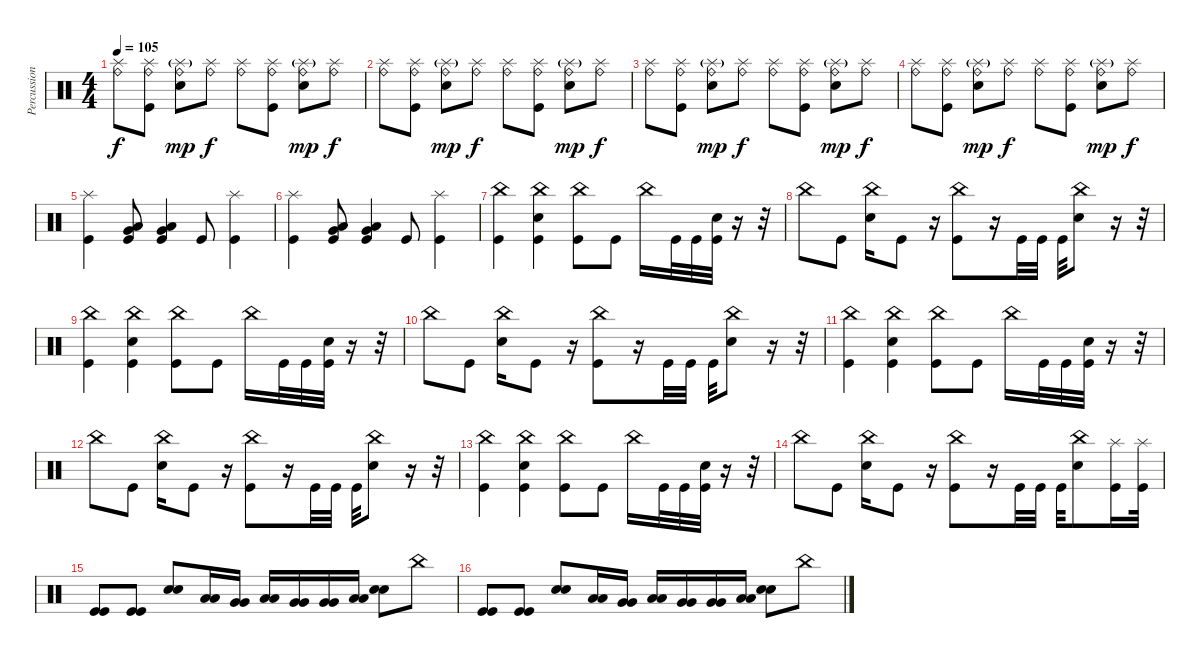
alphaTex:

\track ("Percussion" "Percussion") {instrument percussion}
\staff {score}
\articulation defaults
\ts (4 4)
\tempo 105
\clef neutral
\ks c
("Ride (bell)" "Splash (hit)").8{dy f} ("Kick (hit)" "Ride (bell)" "Splash (hit)").8 ("Snare (hit) 2" "Ride (bell)" "Splash (hit)"{g}).8{dy mp} ("Ride (bell)" "Splash (hit)").8{dy f} ("Ride (bell)" "Splash (hit)").8 ("Kick (hit)" "Ride (bell)" "Splash (hit)").8 ("Snare (hit) 2" "Ride (bell)" "Splash (hit)"{g}).8{dy mp} ("Ride (bell)" "Splash (hit)").8{dy f} |
("Ride (bell)" "Splash (hit)").8 ("Kick (hit)" "Ride (bell)" "Splash (hit)").8 ("Snare (hit) 2" "Ride (bell)" "Splash (hit)"{g}).8{dy mp} ("Ride (bell)" "Splash (hit)").8{dy f} ("Ride (bell)" "Splash (hit)").8 ("Kick (hit)" "Ride (bell)" "Splash (hit)").8 ("Snare (hit) 2" "Ride (bell)" "Splash (hit)"{g}).8{dy mp} ("Ride (bell)" "Splash (hit)").8{dy f} |
("Ride (bell)" "Splash (hit)").8 ("Kick (hit)" "Ride (bell)" "Splash (hit)").8 ("Snare (hit) 2" "Ride (bell)" "Splash (hit)"{g}).8{dy mp} ("Ride (bell)" "Splash (hit)").8{dy f} ("Ride (bell)" "Splash (hit)").8 ("Kick (hit)" "Ride (bell)" "Splash (hit)").8 ("Snare (hit) 2" "Ride (bell)" "Splash (hit)"{g}).8{dy mp} ("Ride (bell)" "Splash (hit)").8{dy f} |
("Ride (bell)" "Splash (hit)").8 ("Kick (hit)" "Ride (bell)" "Splash (hit)").8 ("Snare (hit) 2" "Ride (bell)" "Splash (hit)"{g}).8{dy mp} ("Ride (bell)" "Splash (hit)").8{dy f} ("Ride (bell)" "Splash (hit)").8 ("Kick (hit)" "Ride (bell)" "Splash (hit)").8 ("Snare (hit) 2" "Ride (bell)" "Splash (hit)"{g}).8{dy mp} ("Ride (bell)" "Splash (hit)").8{dy f} |
("Splash (hit)" "Kick (hit)").4 ("Low Floor Tom (hit)" "Very Low Tom (hit)" "Kick (hit)").8 ("Low Floor Tom (hit)" "Very Low Tom (hit)" "Kick (hit)").4 "Kick (hit)".8 ("Splash (hit)" "Kick (hit)").4 |
("Splash (hit)" "Kick (hit)").4 ("Low Floor Tom (hit)" "Very Low Tom (hit)" "Kick (hit)").8 ("Low Floor Tom (hit)" "Very Low Tom (hit)" "Kick (hit)").4 "Kick (hit)".8 ("Splash (hit)" "Kick (hit)").4 |
("China (hit)" "Kick (hit)").4 ("Snare (hit) 2" "China (hit)" "Kick (hit)").4 ("China (hit)" "Kick (hit)").8 "Kick (hit)".8 "China (hit)".16 "Kick (hit)".32 "Kick (hit)".32 ("Snare (hit) 2" "Kick (hit)").32 r.16 r.32 |
"China (hit)".8 "Kick (hit)".8 ("Snare (hit) 2" "China (hit)").16 "Kick (hit)".8 r.16 ("China (hit)" "Kick (hit)").8 r.16 "Kick (hit)".32 "Kick (hit)".32 "Kick (hit)".32 ("Snare (hit) 2" "China (hit)").8 r.16 r.32 |
("China (hit)" "Kick (hit)").4 ("Snare (hit) 2" "China (hit)" "Kick (hit)").4 ("China (hit)" "Kick (hit)").8 "Kick (hit)".8 "China (hit)".16 "Kick (hit)".32 "Kick (hit)".32 ("Snare (hit) 2" "Kick (hit)").32 r.16 r.32 |
"China (hit)".8 "Kick (hit)".8 ("Snare (hit) 2" "China (hit)").16 "Kick (hit)".8 r.16 ("China (hit)" "Kick (hit)").8 r.16 "Kick (hit)".32 "Kick (hit)".32 "Kick (hit)".32 ("Snare (hit) 2" "China (hit)").8 r.16 r.32 |
("China (hit)" "Kick (hit)").4 ("Snare (hit) 2" "China (hit)" "Kick (hit)").4 ("China (hit)" "Kick (hit)").8 "Kick (hit)".8 "China (hit)".16 "Kick (hit)".32 "Kick (hit)".32 ("Snare (hit) 2" "Kick (hit)").32 r.16 r.32 |
"China (hit)".8 "Kick (hit)".8 ("Snare (hit) 2" "China (hit)").16 "Kick (hit)".8 r.16 ("China (hit)" "Kick (hit)").8 r.16 "Kick (hit)".32 "Kick (hit)".32 "Kick (hit)".32 ("Snare (hit) 2" "China (hit)").8 r.16 r.32 |
("China (hit)" "Kick (hit)").4 ("Snare (hit) 2" "China (hit)" "Kick (hit)").4 ("China (hit)" "Kick (hit)").8 "Kick (hit)".8 "China (hit)".16 "Kick (hit)".32 "Kick (hit)".32 ("Snare (hit) 2" "Kick (hit)").32 r.16 r.32 |
"China (hit)".8 "Kick (hit)".8 ("Snare (hit) 2" "China (hit)").16 "Kick (hit)".8 r.16 ("China (hit)" "Kick (hit)").8 r.16 "Kick (hit)".32 "Kick (hit)".32 "Kick (hit)".32 ("Snare (hit) 2" "China (hit)").8 ("Splash (hit)" "Kick (hit)").16 ("Splash (hit)" "Kick (hit)").32 |
("Kick (hit)" "Kick (hit)").8 ("Kick (hit)" "Kick (hit)").8 ("Snare (hit) 2" "Snare (hit) 2").8 ("Low Tom (hit)" "Low Tom (hit)").16 ("Very Low Tom (hit)" "Very Low Tom (hit)").16 ("Low Floor Tom (hit)" "Low Floor Tom (hit)").16 ("Very Low Tom (hit)" "Very Low Tom (hit)").16 ("Very Low Tom (hit)" "Very Low Tom (hit)").16 ("Low Floor Tom (hit)" "Low Floor Tom (hit)").16 ("Snare (hit) 2" "Snare (hit) 2").8 "China (hit)".8 |
("Kick (hit)" "Kick (hit)").8 ("Kick (hit)" "Kick (hit)").8 ("Snare (hit) 2" "Snare (hit) 2").8 ("Low Tom (hit)" "Low Tom (hit)").16 ("Very Low Tom (hit)" "Very Low Tom (hit)").16 ("Low Floor Tom (hit)" "Low Floor Tom (hit)").16 ("Very Low Tom (hit)" "Very Low Tom (hit)").16 ("Very Low Tom (hit)" "Very Low Tom (hit)").16 ("Low Floor Tom (hit)" "Low Floor Tom (hit)").16 ("Snare (hit) 2" "Snare (hit) 2").8 "China (hit)".8
